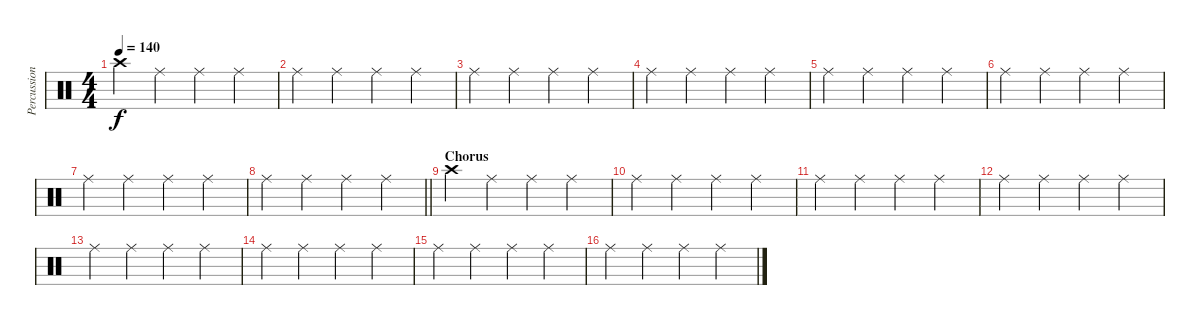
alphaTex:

\track ("Percussion" "Percussion") {instrument percussion}
\staff {score}
\articulation defaults
\ts (4 4)
\tempo 140
\clef neutral
\ks c "Crash high (hit)".4{dy f} "Ride (middle)".4 "Ride (middle)".4 "Ride (middle)".4
|
"Ride (middle)".4 "Ride (middle)".4 "Ride (middle)".4 "Ride (middle)".4 |
"Ride (middle)".4 "Ride (middle)".4 "Ride (middle)".4 "Ride (middle)".4 |
"Ride (middle)".4 "Ride (middle)".4 "Ride (middle)".4 "Ride (middle)".4 |
"Ride (middle)".4 "Ride (middle)".4 "Ride (middle)".4 "Ride (middle)".4 |
"Ride (middle)".4 "Ride (middle)".4 "Ride (middle)".4 "Ride (middle)".4 |
"Ride (middle)".4 "Ride (middle)".4 "Ride (middle)".4 "Ride (middle)".4 |
\barLineRight lightlight "Ride (middle)".4 "Ride (middle)".4 "Ride (middle)".4 "Ride (middle)".4
|
\section ("" "Chorus")
"Crash high (hit)".4 "Ride (middle)".4 "Ride (middle)".4 "Ride (middle)".4 |
"Ride (middle)".4 "Ride (middle)".4 "Ride (middle)".4 "Ride (middle)".4 |
"Ride (middle)".4 "Ride (middle)".4 "Ride (middle)".4 "Ride (middle)".4 |
"Ride (middle)".4 "Ride (middle)".4 "Ride (middle)".4 "Ride (middle)".4 |
"Ride (middle)".4 "Ride (middle)".4 "Ride (middle)".4 "Ride (middle)".4 |
"Ride (middle)".4 "Ride (middle)".4 "Ride (middle)".4 "Ride (middle)".4 |
"Ride (middle)".4 "Ride (middle)".4 "Ride (middle)".4 "Ride (middle)".4 |
"Ride (middle)".4 "Ride (middle)".4 "Ride (middle)".4 "Ride (middle)".4
